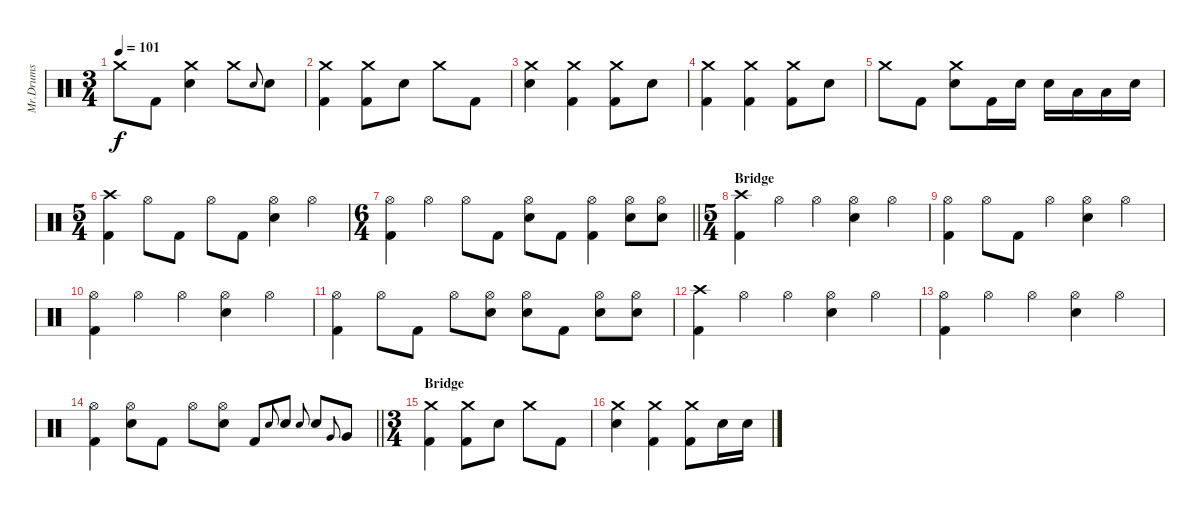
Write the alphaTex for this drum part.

\track ("Mr.Drums" "Mr.Drums") {instrument percussion}
\staff {score}
\articulation defaults
\ts (3 4)
\tempo 101
\clef neutral
\ks c "Crash medium (hit)".8{dy f} "Kick (hit) 2".8
("Crash medium (hit)" "Electric Snare (hit)").4 "Crash medium (hit)".8 "Electric Snare (hit)".8{gr onbeat} "Electric Snare (hit)".8 |
("Crash medium (hit)" "Kick (hit) 2").4 ("Crash medium (hit)" "Kick (hit) 2").8 "Electric Snare (hit)".8 "Crash medium (hit)".8 "Kick (hit) 2".8 |
("Crash medium (hit)" "Electric Snare (hit)").4 ("Crash medium (hit)" "Kick (hit) 2").4 ("Crash medium (hit)" "Kick (hit) 2").8 "Electric Snare (hit)".8 |
("Crash medium (hit)" "Kick (hit) 2").4 ("Crash medium (hit)" "Kick (hit) 2").4 ("Crash medium (hit)" "Kick (hit) 2").8 "Electric Snare (hit)".8 |
"Crash medium (hit)".8 "Kick (hit) 2".8 ("Crash medium (hit)" "Electric Snare (hit)").8 "Kick (hit) 2".16 "Electric Snare (hit)".16 "Electric Snare (hit)".16 "Low Tom (hit)".16 "Low Tom (hit)".16 "Electric Snare (hit)".16 |
\ts (5 4)
("Crash high (hit)" "Kick (hit) 2").4 "Hi-Hat (open)".8 "Kick (hit) 2".8 "Hi-Hat (open)".8 "Kick (hit) 2".8 ("Hi-Hat (open)" "Electric Snare (hit)").4 "Hi-Hat (open)".4 |
\ts (6 4)
\barLineRight lightlight
("Hi-Hat (open)" "Kick (hit) 2").4 "Hi-Hat (open)".4 "Hi-Hat (open)".8 "Kick (hit) 2".8 ("Hi-Hat (open)" "Electric Snare (hit)").8 "Kick (hit) 2".8 ("Hi-Hat (open)" "Kick (hit) 2").4 ("Hi-Hat (open)" "Electric Snare (hit)").8 ("Hi-Hat (open)" "Electric Snare (hit)").8 |
\ts (5 4)
\section ("" "Bridge")
("Crash high (hit)" "Kick (hit) 2").4 "Hi-Hat (open)".4 "Hi-Hat (open)".4 ("Hi-Hat (open)" "Electric Snare (hit)").4 "Hi-Hat (open)".4 |
("Hi-Hat (open)" "Kick (hit) 2").4 "Hi-Hat (open)".8 "Kick (hit) 2".8 "Hi-Hat (open)".4 ("Hi-Hat (open)" "Electric Snare (hit)").4 "Hi-Hat (open)".4 |
("Hi-Hat (open)" "Kick (hit) 2").4 "Hi-Hat (open)".4 "Hi-Hat (open)".4 ("Hi-Hat (open)" "Electric Snare (hit)").4 "Hi-Hat (open)".4 |
("Hi-Hat (open)" "Kick (hit) 2").4 "Hi-Hat (open)".8 "Kick (hit) 2".8 "Hi-Hat (open)".8 ("Hi-Hat (open)" "Electric Snare (hit)").8 ("Hi-Hat (open)" "Electric Snare (hit)").8 "Kick (hit) 2".8 ("Hi-Hat (open)" "Electric Snare (hit)").8 ("Hi-Hat (open)" "Electric Snare (hit)").8 |
("Crash high (hit)" "Kick (hit) 2").4 "Hi-Hat (open)".4 "Hi-Hat (open)".4 ("Hi-Hat (open)" "Electric Snare (hit)").4 "Hi-Hat (open)".4 |
("Hi-Hat (open)" "Kick (hit) 2").4 "Hi-Hat (open)".4 "Hi-Hat (open)".4 ("Hi-Hat (open)" "Electric Snare (hit)").4 "Hi-Hat (open)".4 |
\barLineRight lightlight
("Hi-Hat (open)" "Kick (hit) 2").4 ("Hi-Hat (open)" "Electric Snare (hit)").8 "Kick (hit) 2".8 "Hi-Hat (open)".8 ("Hi-Hat (open)" "Electric Snare (hit)").8 "Kick (hit) 2".8 "Electric Snare (hit)".8{gr onbeat} "Electric Snare (hit)".8 "Electric Snare (hit)".8{gr onbeat} "Electric Snare (hit)".8 "Very Low Tom (hit)".8{gr onbeat} "Very Low Tom (hit)".8 |
\ts (3 4)
\section ("" "Bridge")
("Crash medium (hit)" "Kick (hit) 2").4 ("Crash medium (hit)" "Kick (hit) 2").8 "Electric Snare (hit)".8 "Crash medium (hit)".8 "Kick (hit) 2".8 |
("Crash medium (hit)" "Electric Snare (hit)").4 ("Crash medium (hit)" "Kick (hit) 2").4 ("Crash medium (hit)" "Kick (hit) 2").8 "Electric Snare (hit)".16 "Electric Snare (hit)".16
